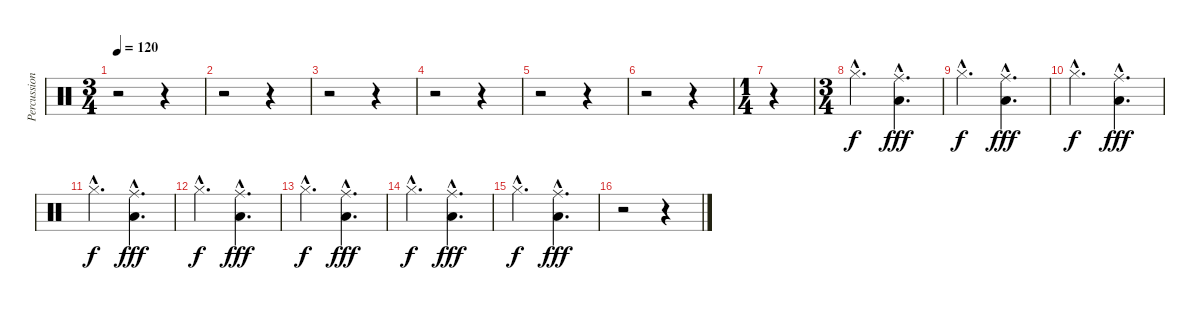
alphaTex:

\track ("Percussions" "Percussion") {instrument percussion}
\staff {score}
\articulation defaults
\ts (3 4)
\tempo 120
\clef neutral
\ks c
r.2{dy fff} r.4 |
r.2 r.4 |
r.2 r.4 |
r.2 r.4 |
r.2 r.4 |
r.2 r.4 |
\ts (1 4)
r.4 |
\ts (3 4)
"Hi-Hat (closed)"{hac}.4{d dy f} ("Ride (middle)"{hac} "Low Tom (hit)"{hac}).4{d dy fff} |
"Hi-Hat (closed)"{hac}.4{d dy f} ("Ride (middle)"{hac} "Low Tom (hit)"{hac}).4{d dy fff} |
"Hi-Hat (closed)"{hac}.4{d dy f} ("Ride (middle)"{hac} "Low Tom (hit)"{hac}).4{d dy fff} |
"Hi-Hat (closed)"{hac}.4{d dy f} ("Ride (middle)"{hac} "Low Tom (hit)"{hac}).4{d dy fff} |
"Hi-Hat (closed)"{hac}.4{d dy f} ("Ride (middle)"{hac} "Low Tom (hit)"{hac}).4{d dy fff} |
"Hi-Hat (closed)"{hac}.4{d dy f} ("Ride (middle)"{hac} "Low Tom (hit)"{hac}).4{d dy fff} |
"Hi-Hat (closed)"{hac}.4{d dy f} ("Ride (middle)"{hac} "Low Tom (hit)"{hac}).4{d dy fff} |
"Hi-Hat (closed)"{hac}.4{d dy f} ("Ride (middle)"{hac} "Low Tom (hit)"{hac}).4{d dy fff} |
r.2 r.4
